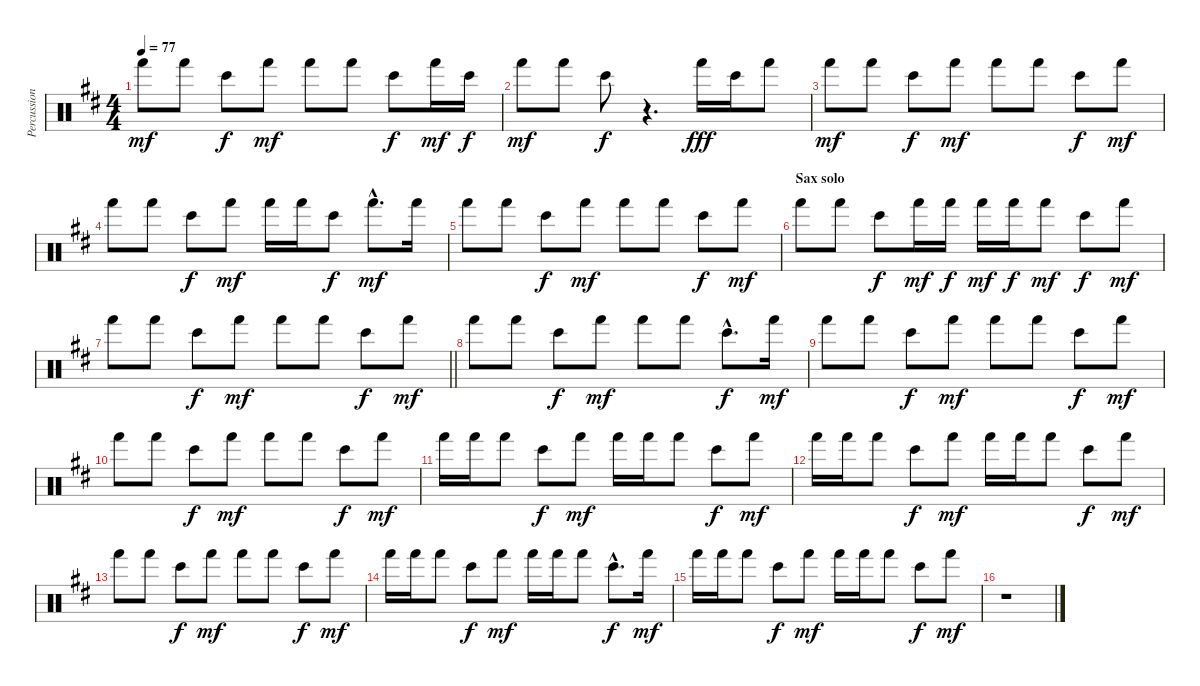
\track ("Percussion" "Percussion") {instrument percussion}
\staff {score}
\articulation defaults
\ts (4 4)
\tempo 77
\clef neutral
\ks d "Hand (hit)".8{dy mf} "Hand (hit)".8 "Bongo High (hit)".8{dy f} "Hand (hit)".8{dy mf} "Hand (hit)".8 "Hand (hit)".8 "Bongo High (hit)".8{dy f} "Hand (hit)".16{dy mf} "Bongo High (hit)".16{dy f}
|
"Hand (hit)".8{dy mf} "Hand (hit)".8 "Bongo High (hit)".8{dy f} r.4{d} "Hand (hit)".16{dy fff} "Bongo High (hit)".16 "Hand (hit)".8 |
"Hand (hit)".8{dy mf} "Hand (hit)".8 "Bongo High (hit)".8{dy f} "Hand (hit)".8{dy mf} "Hand (hit)".8 "Hand (hit)".8 "Bongo High (hit)".8{dy f} "Hand (hit)".8{dy mf} |
"Hand (hit)".8 "Hand (hit)".8 "Bongo High (hit)".8{dy f} "Hand (hit)".8{dy mf} "Hand (hit)".16 "Hand (hit)".16 "Bongo High (hit)".8{dy f} "Hand (hit)"{hac}.8{d dy mf} "Hand (hit)".16 |
"Hand (hit)".8 "Hand (hit)".8 "Bongo High (hit)".8{dy f} "Hand (hit)".8{dy mf} "Hand (hit)".8 "Hand (hit)".8 "Bongo High (hit)".8{dy f} "Hand (hit)".8{dy mf} |
\section ("" "Sax solo")
"Hand (hit)".8 "Hand (hit)".8 "Bongo High (hit)".8{dy f} "Hand (hit)".16{dy mf} "Hand (hit)".16{dy f} "Hand (hit)".16{dy mf} "Hand (hit)".16{dy f} "Hand (hit)".8{dy mf} "Bongo High (hit)".8{dy f} "Hand (hit)".8{dy mf} |
\barLineRight lightlight "Hand (hit)".8 "Hand (hit)".8 "Bongo High (hit)".8{dy f} "Hand (hit)".8{dy mf} "Hand (hit)".8 "Hand (hit)".8 "Bongo High (hit)".8{dy f} "Hand (hit)".8{dy mf}
|
"Hand (hit)".8 "Hand (hit)".8 "Bongo High (hit)".8{dy f} "Hand (hit)".8{dy mf} "Hand (hit)".8 "Hand (hit)".8 "Bongo High (hit)"{hac}.8{d dy f} "Hand (hit)".16{dy mf} |
"Hand (hit)".8 "Hand (hit)".8 "Bongo High (hit)".8{dy f} "Hand (hit)".8{dy mf} "Hand (hit)".8 "Hand (hit)".8 "Bongo High (hit)".8{dy f} "Hand (hit)".8{dy mf} |
"Hand (hit)".8 "Hand (hit)".8 "Bongo High (hit)".8{dy f} "Hand (hit)".8{dy mf} "Hand (hit)".8 "Hand (hit)".8 "Bongo High (hit)".8{dy f} "Hand (hit)".8{dy mf} |
"Hand (hit)".16 "Hand (hit)".16 "Hand (hit)".8 "Bongo High (hit)".8{dy f} "Hand (hit)".8{dy mf} "Hand (hit)".16 "Hand (hit)".16 "Hand (hit)".8 "Bongo High (hit)".8{dy f} "Hand (hit)".8{dy mf} |
"Hand (hit)".16 "Hand (hit)".16 "Hand (hit)".8 "Bongo High (hit)".8{dy f} "Hand (hit)".8{dy mf} "Hand (hit)".16 "Hand (hit)".16 "Hand (hit)".8 "Bongo High (hit)".8{dy f} "Hand (hit)".8{dy mf} |
"Hand (hit)".8 "Hand (hit)".8 "Bongo High (hit)".8{dy f} "Hand (hit)".8{dy mf} "Hand (hit)".8 "Hand (hit)".8 "Bongo High (hit)".8{dy f} "Hand (hit)".8{dy mf} |
"Hand (hit)".16 "Hand (hit)".16 "Hand (hit)".8 "Bongo High (hit)".8{dy f} "Hand (hit)".8{dy mf} "Hand (hit)".16 "Hand (hit)".16 "Hand (hit)".8 "Bongo High (hit)"{hac}.8{d dy f} "Hand (hit)".16{dy mf} |
"Hand (hit)".16 "Hand (hit)".16 "Hand (hit)".8 "Bongo High (hit)".8{dy f} "Hand (hit)".8{dy mf} "Hand (hit)".16 "Hand (hit)".16 "Hand (hit)".8 "Bongo High (hit)".8{dy f} "Hand (hit)".8{dy mf} |
r.1
